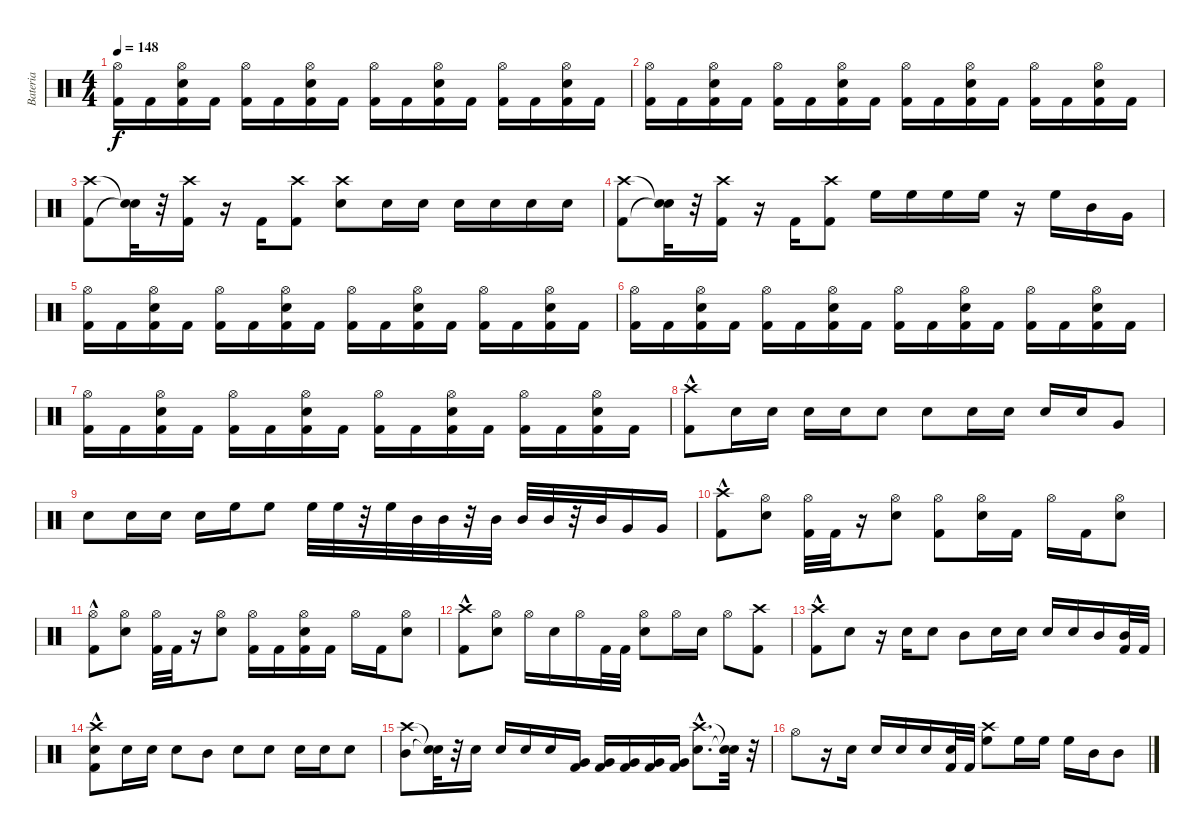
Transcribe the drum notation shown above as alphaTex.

\track ("Bateria" "Bateria") {instrument percussion}
\staff {score}
\articulation defaults
\ts (4 4)
\tempo 148
\clef neutral
\ks c
("Kick (hit) 2" "Hi-Hat (open)").16{dy f} "Kick (hit) 2".16 ("Kick (hit) 2" "Snare (hit) 2" "Hi-Hat (open)").16 "Kick (hit) 2".16 ("Kick (hit) 2" "Hi-Hat (open)").16 "Kick (hit) 2".16 ("Kick (hit) 2" "Snare (hit) 2" "Hi-Hat (open)").16 "Kick (hit) 2".16 ("Kick (hit) 2" "Hi-Hat (open)").16 "Kick (hit) 2".16 ("Kick (hit) 2" "Snare (hit) 2" "Hi-Hat (open)").16 "Kick (hit) 2".16 ("Kick (hit) 2" "Hi-Hat (open)").16 "Kick (hit) 2".16 ("Kick (hit) 2" "Snare (hit) 2" "Hi-Hat (open)").16 "Kick (hit) 2".16 |
("Kick (hit) 2" "Hi-Hat (open)").16 "Kick (hit) 2".16 ("Kick (hit) 2" "Snare (hit) 2" "Hi-Hat (open)").16 "Kick (hit) 2".16 ("Kick (hit) 2" "Hi-Hat (open)").16 "Kick (hit) 2".16 ("Kick (hit) 2" "Snare (hit) 2" "Hi-Hat (open)").16 "Kick (hit) 2".16 ("Kick (hit) 2" "Hi-Hat (open)").16 "Kick (hit) 2".16 ("Kick (hit) 2" "Snare (hit) 2" "Hi-Hat (open)").16 "Kick (hit) 2".16 ("Kick (hit) 2" "Hi-Hat (open)").16 "Kick (hit) 2".16 ("Kick (hit) 2" "Snare (hit) 2" "Hi-Hat (open)").16 "Kick (hit) 2".16 |
("Kick (hit) 2" "Crash high (hit)").8 ("Snare (hit)"{t} "Snare (hit)"{t}).32 r.32 ("Crash high (hit)" "Kick (hit) 2").16 r.16 "Kick (hit) 2".16 ("Kick (hit) 2" "Crash high (hit)").8 ("Crash high (hit)" "Snare (hit) 2").8 "Snare (hit) 2".16 "Snare (hit) 2".16 "Snare (hit) 2".16 "Snare (hit) 2".16 "Snare (hit) 2".16 "Snare (hit) 2".16 |
("Kick (hit) 2" "Crash high (hit)").8 ("Snare (hit)"{t} "Snare (hit)"{t}).32 r.32 ("Crash high (hit)" "Kick (hit) 2").16 r.16 "Kick (hit) 2".16 ("Kick (hit) 2" "Crash high (hit)").8 "High Floor Tom (hit)".16 "High Floor Tom (hit)".16 "High Floor Tom (hit)".16 "High Floor Tom (hit)".16 r.16 "High Floor Tom (hit)".16 "Mid Tom (hit)".16 "Very Low Tom (hit)".16 |
("Kick (hit) 2" "Hi-Hat (open)").16 "Kick (hit) 2".16 ("Kick (hit) 2" "Snare (hit) 2" "Hi-Hat (open)").16 "Kick (hit) 2".16 ("Kick (hit) 2" "Hi-Hat (open)").16 "Kick (hit) 2".16 ("Kick (hit) 2" "Snare (hit) 2" "Hi-Hat (open)").16 "Kick (hit) 2".16 ("Kick (hit) 2" "Hi-Hat (open)").16 "Kick (hit) 2".16 ("Kick (hit) 2" "Snare (hit) 2" "Hi-Hat (open)").16 "Kick (hit) 2".16 ("Kick (hit) 2" "Hi-Hat (open)").16 "Kick (hit) 2".16 ("Kick (hit) 2" "Snare (hit) 2" "Hi-Hat (open)").16 "Kick (hit) 2".16 |
("Kick (hit) 2" "Hi-Hat (open)").16 "Kick (hit) 2".16 ("Kick (hit) 2" "Snare (hit) 2" "Hi-Hat (open)").16 "Kick (hit) 2".16 ("Kick (hit) 2" "Hi-Hat (open)").16 "Kick (hit) 2".16 ("Kick (hit) 2" "Snare (hit) 2" "Hi-Hat (open)").16 "Kick (hit) 2".16 ("Kick (hit) 2" "Hi-Hat (open)").16 "Kick (hit) 2".16 ("Kick (hit) 2" "Snare (hit) 2" "Hi-Hat (open)").16 "Kick (hit) 2".16 ("Kick (hit) 2" "Hi-Hat (open)").16 "Kick (hit) 2".16 ("Kick (hit) 2" "Snare (hit) 2" "Hi-Hat (open)").16 "Kick (hit) 2".16 |
("Kick (hit) 2" "Hi-Hat (open)").16 "Kick (hit) 2".16 ("Kick (hit) 2" "Snare (hit) 2" "Hi-Hat (open)").16 "Kick (hit) 2".16 ("Kick (hit) 2" "Hi-Hat (open)").16 "Kick (hit) 2".16 ("Kick (hit) 2" "Snare (hit) 2" "Hi-Hat (open)").16 "Kick (hit) 2".16 ("Kick (hit) 2" "Hi-Hat (open)").16 "Kick (hit) 2".16 ("Kick (hit) 2" "Snare (hit) 2" "Hi-Hat (open)").16 "Kick (hit) 2".16 ("Kick (hit) 2" "Hi-Hat (open)").16 "Kick (hit) 2".16 ("Kick (hit) 2" "Snare (hit) 2" "Hi-Hat (open)").16 "Kick (hit) 2".16 |
("Kick (hit) 2"{hac} "Crash high (hit)"{hac}).8 "Snare (hit) 2".16 "Snare (hit) 2".16 "Snare (hit) 2".16 "Snare (hit) 2".16 "Snare (hit) 2".8 "Snare (hit) 2".8 "Snare (hit) 2".16 "Snare (hit) 2".16 "Snare (hit) 2".16 "Snare (hit) 2".16 "Very Low Tom (hit)".8 |
"Snare (hit) 2".8 "Snare (hit) 2".16 "Snare (hit) 2".16 "Snare (hit) 2".16 "High Floor Tom (hit)".16 "High Floor Tom (hit)".8 "High Floor Tom (hit)".32 "High Floor Tom (hit)".32 r.32 "High Floor Tom (hit)".32 "Mid Tom (hit)".32 "Mid Tom (hit)".32 r.32 "Mid Tom (hit)".32 "Mid Tom (hit)".32 "Mid Tom (hit)".32 r.32 "Mid Tom (hit)".32 "Very Low Tom (hit)".16 "Very Low Tom (hit)".16 |
("Kick (hit) 2"{hac} "Crash high (hit)").8 ("Hi-Hat (open)" "Snare (hit) 2").8 ("Hi-Hat (open)" "Kick (hit) 2").32 "Kick (hit) 2".32 r.16 ("Hi-Hat (open)" "Snare (hit) 2").8 ("Hi-Hat (open)" "Kick (hit) 2").8 ("Hi-Hat (open)" "Snare (hit) 2").16 "Kick (hit) 2".16 "Hi-Hat (open)".16 "Kick (hit) 2".16 ("Hi-Hat (open)" "Snare (hit) 2").8 |
("Kick (hit) 2"{hac} "Hi-Hat (open)").8 ("Hi-Hat (open)" "Snare (hit) 2").8 ("Hi-Hat (open)" "Kick (hit) 2").32 "Kick (hit) 2".32 r.16 ("Hi-Hat (open)" "Snare (hit) 2").8 ("Hi-Hat (open)" "Kick (hit) 2").16 "Kick (hit) 2".16 ("Hi-Hat (open)" "Snare (hit) 2" "Kick (hit) 2").16 "Kick (hit) 2".16 "Hi-Hat (open)".16 "Kick (hit) 2".16 ("Hi-Hat (open)" "Snare (hit) 2").8 |
("Kick (hit) 2"{hac} "Crash high (hit)").8 ("Snare (hit) 2" "Hi-Hat (open)").8 "Hi-Hat (open)".16 "Snare (hit) 2".16 "Hi-Hat (open)".16 "Kick (hit) 2".32 "Kick (hit) 2".32 ("Snare (hit) 2" "Hi-Hat (open)").8 "Hi-Hat (open)".16 "Snare (hit) 2".16 "Hi-Hat (open)".8 ("Kick (hit) 2" "Crash high (hit)").8 |
("Crash high (hit)" "Kick (hit) 2"{hac}).8 "Snare (hit) 2".8 r.16 "Snare (hit) 2".16 "Snare (hit) 2".8 "Mid Tom (hit)".8 "Snare (hit) 2".16 "Snare (hit) 2".16 "Snare (hit) 2".16 "Snare (hit) 2".16 "Mid Tom (hit)".16 ("Mid Tom (hit)" "Kick (hit) 2").32 "Kick (hit) 2".32 |
("Kick (hit) 2"{hac} "Crash high (hit)" "Snare (hit) 2").8 "Snare (hit) 2".16 "Snare (hit) 2".16 "Snare (hit) 2".8 "Mid Tom (hit)".8 "Snare (hit) 2".8 "Snare (hit) 2".8 "Snare (hit) 2".16 "Snare (hit) 2".16 "Snare (hit) 2".8 |
("Mid Tom (hit)" "Crash high (hit)").8 ("Snare (hit)"{t} "Snare (hit)"{t}).32 r.32 "Snare (hit) 2".16 "Snare (hit) 2".16 "Snare (hit) 2".16 "Snare (hit) 2".16 ("Very Low Tom (hit)" "Kick (hit) 2").16 ("Very Low Tom (hit)" "Kick (hit) 2").16 ("Very Low Tom (hit)" "Kick (hit) 2").16 ("Very Low Tom (hit)" "Kick (hit) 2").16 ("Very Low Tom (hit)" "Kick (hit) 2").16 ("Snare (hit) 2"{hac} "Crash high (hit)"{hac}).8{d} ("Snare (hit)"{t} "Snare (hit)"{t}).32 r.32 |
"Hi-Hat (open)".8 r.16 "Snare (hit) 2".16 "Snare (hit) 2".16 "Snare (hit) 2".16 "Snare (hit) 2".16 ("Snare (hit) 2" "Kick (hit) 2").32 "Kick (hit) 2".32 ("High Floor Tom (hit)" "Crash high (hit)").8 "High Floor Tom (hit)".16 "High Floor Tom (hit)".16 "High Floor Tom (hit)".16 "Mid Tom (hit)".16 "Mid Tom (hit)".8
